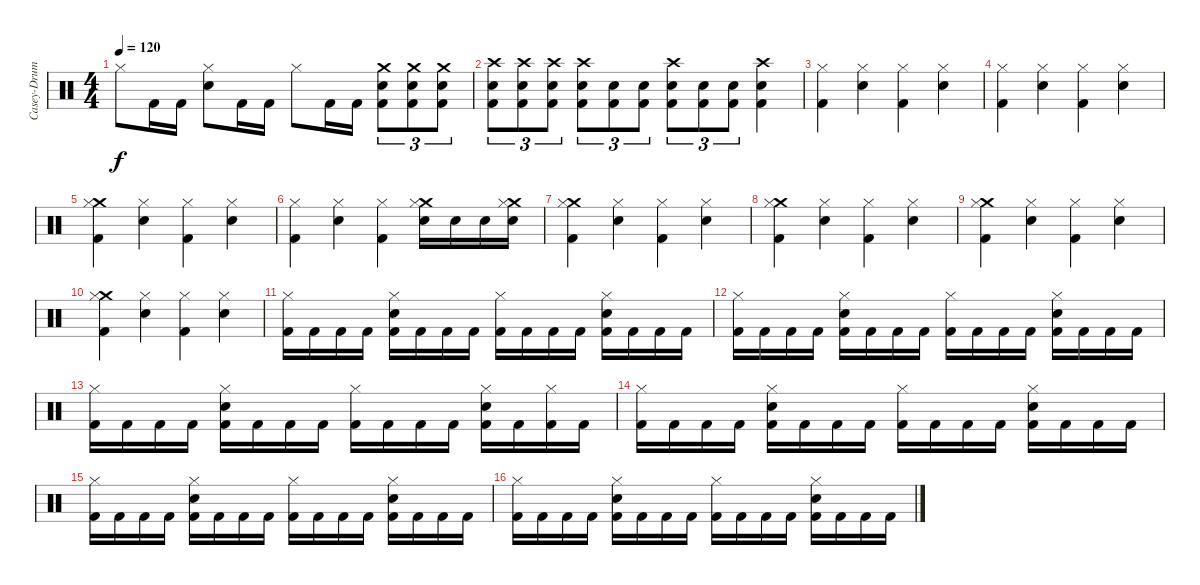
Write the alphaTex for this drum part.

\track ("Casey-Drums" "Casey-Drum") {instrument percussion}
\staff {score}
\articulation defaults
\ts (4 4)
\tempo 120
\clef neutral
\ks c "Hi-Hat (closed)".8{dy f} "Kick (hit) 2".16 "Kick (hit) 2".16
("Hi-Hat (closed)" "Electric Snare (hit)").8 "Kick (hit) 2".16 "Kick (hit) 2".16 "Hi-Hat (closed)".8 "Kick (hit) 2".16 "Kick (hit) 2".16 ("Crash medium (hit)" "Electric Snare (hit)" "Kick (hit) 2").8{tu (3 2)} ("Crash medium (hit)" "Electric Snare (hit)" "Kick (hit) 2").8{tu (3 2)} ("Crash medium (hit)" "Electric Snare (hit)" "Kick (hit) 2").8{tu (3 2)} |
("Crash high (hit)" "Electric Snare (hit)" "Kick (hit) 2").8{tu (3 2)} ("Crash high (hit)" "Electric Snare (hit)" "Kick (hit) 2").8{tu (3 2)} ("Crash high (hit)" "Electric Snare (hit)" "Kick (hit) 2").8{tu (3 2)} ("Crash high (hit)" "Electric Snare (hit)" "Kick (hit) 2").8{tu (3 2)} ("Electric Snare (hit)" "Kick (hit) 2").8{tu (3 2)} ("Electric Snare (hit)" "Kick (hit) 2").8{tu (3 2)} ("Crash high (hit)" "Electric Snare (hit)" "Kick (hit) 2").8{tu (3 2)} ("Electric Snare (hit)" "Kick (hit) 2").8{tu (3 2)} ("Electric Snare (hit)" "Kick (hit) 2").8{tu (3 2)} ("Crash high (hit)" "Electric Snare (hit)" "Kick (hit) 2").4 |
("Hi-Hat (closed)" "Kick (hit) 2").4 ("Hi-Hat (closed)" "Electric Snare (hit)").4 ("Hi-Hat (closed)" "Kick (hit) 2").4 ("Hi-Hat (closed)" "Electric Snare (hit)").4 |
("Hi-Hat (closed)" "Kick (hit) 2").4 ("Hi-Hat (closed)" "Electric Snare (hit)").4 ("Hi-Hat (closed)" "Kick (hit) 2").4 ("Hi-Hat (closed)" "Electric Snare (hit)").4 |
("Crash medium (hit)" "Hi-Hat (closed)" "Kick (hit) 2").4 ("Hi-Hat (closed)" "Electric Snare (hit)").4 ("Hi-Hat (closed)" "Kick (hit) 2").4 ("Hi-Hat (closed)" "Electric Snare (hit)").4 |
("Hi-Hat (closed)" "Kick (hit) 2").4 ("Hi-Hat (closed)" "Electric Snare (hit)").4 ("Hi-Hat (closed)" "Kick (hit) 2").4 ("Crash medium (hit)" "Hi-Hat (closed)" "Electric Snare (hit)").16 "Electric Snare (hit)".16 "Electric Snare (hit)".16 ("Crash medium (hit)" "Hi-Hat (closed)" "Electric Snare (hit)").16 |
("Crash medium (hit)" "Hi-Hat (closed)" "Kick (hit) 2").4 ("Hi-Hat (closed)" "Electric Snare (hit)").4 ("Hi-Hat (closed)" "Kick (hit) 2").4 ("Hi-Hat (closed)" "Electric Snare (hit)").4 |
("Crash medium (hit)" "Hi-Hat (closed)" "Kick (hit) 2").4 ("Hi-Hat (closed)" "Electric Snare (hit)").4 ("Hi-Hat (closed)" "Kick (hit) 2").4 ("Hi-Hat (closed)" "Electric Snare (hit)").4 |
("Crash medium (hit)" "Hi-Hat (closed)" "Kick (hit) 2").4 ("Hi-Hat (closed)" "Electric Snare (hit)").4 ("Hi-Hat (closed)" "Kick (hit) 2").4 ("Hi-Hat (closed)" "Electric Snare (hit)").4 |
("Crash medium (hit)" "Hi-Hat (closed)" "Kick (hit) 2").4 ("Hi-Hat (closed)" "Electric Snare (hit)").4 ("Hi-Hat (closed)" "Kick (hit) 2").4 ("Hi-Hat (closed)" "Electric Snare (hit)").4 |
("Hi-Hat (closed)" "Kick (hit) 2").16 "Kick (hit) 2".16 "Kick (hit) 2".16 "Kick (hit) 2".16 ("Hi-Hat (closed)" "Electric Snare (hit)" "Kick (hit) 2").16 "Kick (hit) 2".16 "Kick (hit) 2".16 "Kick (hit) 2".16 ("Hi-Hat (closed)" "Kick (hit) 2").16 "Kick (hit) 2".16 "Kick (hit) 2".16 "Kick (hit) 2".16 ("Hi-Hat (closed)" "Electric Snare (hit)" "Kick (hit) 2").16 "Kick (hit) 2".16 "Kick (hit) 2".16 "Kick (hit) 2".16 |
("Hi-Hat (closed)" "Kick (hit) 2").16 "Kick (hit) 2".16 "Kick (hit) 2".16 "Kick (hit) 2".16 ("Hi-Hat (closed)" "Electric Snare (hit)" "Kick (hit) 2").16 "Kick (hit) 2".16 "Kick (hit) 2".16 "Kick (hit) 2".16 ("Hi-Hat (closed)" "Kick (hit) 2").16 "Kick (hit) 2".16 "Kick (hit) 2".16 "Kick (hit) 2".16 ("Hi-Hat (closed)" "Electric Snare (hit)" "Kick (hit) 2").16 "Kick (hit) 2".16 "Kick (hit) 2".16 "Kick (hit) 2".16 |
("Hi-Hat (closed)" "Kick (hit) 2").16 "Kick (hit) 2".16 "Kick (hit) 2".16 "Kick (hit) 2".16 ("Hi-Hat (closed)" "Electric Snare (hit)" "Kick (hit) 2").16 "Kick (hit) 2".16 "Kick (hit) 2".16 "Kick (hit) 2".16 ("Hi-Hat (closed)" "Kick (hit) 2").16 "Kick (hit) 2".16 "Kick (hit) 2".16 "Kick (hit) 2".16 ("Hi-Hat (closed)" "Electric Snare (hit)" "Kick (hit) 2").16 "Kick (hit) 2".16 ("Hi-Hat (closed)" "Kick (hit) 2").16 "Kick (hit) 2".16 |
("Hi-Hat (closed)" "Kick (hit) 2").16 "Kick (hit) 2".16 "Kick (hit) 2".16 "Kick (hit) 2".16 ("Hi-Hat (closed)" "Electric Snare (hit)" "Kick (hit) 2").16 "Kick (hit) 2".16 "Kick (hit) 2".16 "Kick (hit) 2".16 ("Hi-Hat (closed)" "Kick (hit) 2").16 "Kick (hit) 2".16 "Kick (hit) 2".16 "Kick (hit) 2".16 ("Hi-Hat (closed)" "Electric Snare (hit)" "Kick (hit) 2").16 "Kick (hit) 2".16 "Kick (hit) 2".16 "Kick (hit) 2".16 |
("Hi-Hat (closed)" "Kick (hit) 2").16 "Kick (hit) 2".16 "Kick (hit) 2".16 "Kick (hit) 2".16 ("Hi-Hat (closed)" "Electric Snare (hit)" "Kick (hit) 2").16 "Kick (hit) 2".16 "Kick (hit) 2".16 "Kick (hit) 2".16 ("Hi-Hat (closed)" "Kick (hit) 2").16 "Kick (hit) 2".16 "Kick (hit) 2".16 "Kick (hit) 2".16 ("Hi-Hat (closed)" "Electric Snare (hit)" "Kick (hit) 2").16 "Kick (hit) 2".16 "Kick (hit) 2".16 "Kick (hit) 2".16 |
("Hi-Hat (closed)" "Kick (hit) 2").16 "Kick (hit) 2".16 "Kick (hit) 2".16 "Kick (hit) 2".16 ("Hi-Hat (closed)" "Electric Snare (hit)" "Kick (hit) 2").16 "Kick (hit) 2".16 "Kick (hit) 2".16 "Kick (hit) 2".16 ("Hi-Hat (closed)" "Kick (hit) 2").16 "Kick (hit) 2".16 "Kick (hit) 2".16 "Kick (hit) 2".16 ("Hi-Hat (closed)" "Electric Snare (hit)" "Kick (hit) 2").16 "Kick (hit) 2".16 "Kick (hit) 2".16 "Kick (hit) 2".16
